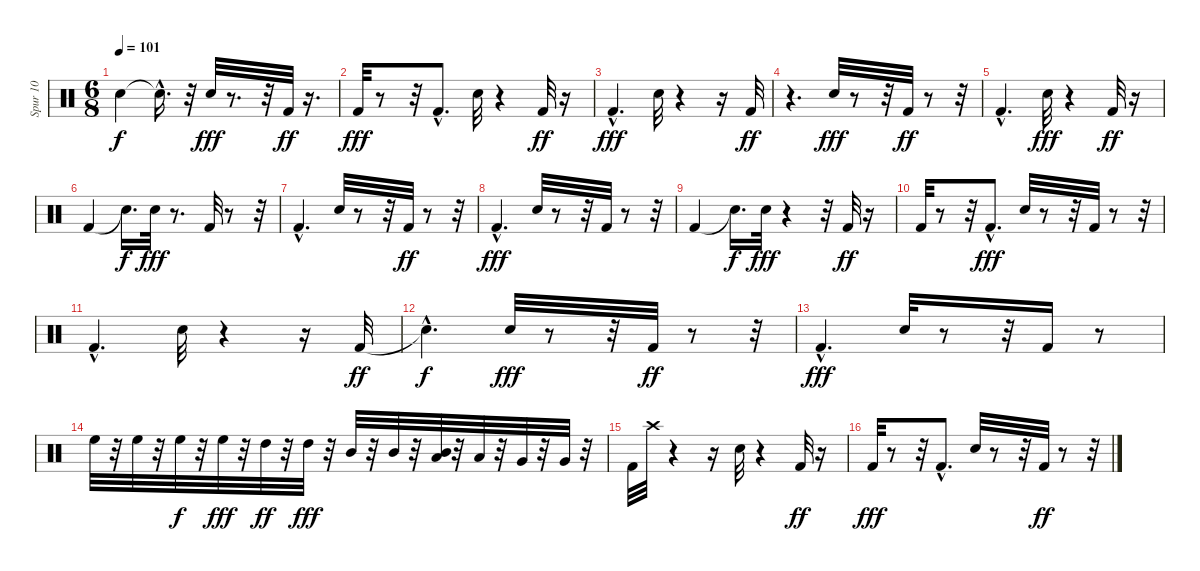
\track ("Spur 10" "Spur 10") {instrument percussion}
\staff {score}
\articulation defaults
\ts (6 8)
\tempo 101
\clef neutral
\ks c "Snare (hit)"{t}.4{dy f} "Snare (hit)"{hac t}.16{d}
r.32 "Electric Snare (hit)".32{dy fff} r.8{d} r.32 "Kick (hit) 2".32{dy ff} r.16{d} |
"Kick (hit) 2".32{dy fff} r.8 r.32 "Kick (hit) 2"{hac}.8{d} "Electric Snare (hit)".32 r.4 "Kick (hit) 2".32{dy ff} r.16 |
"Kick (hit) 2"{hac}.4{d dy fff} "Electric Snare (hit)".32 r.4 r.16 "Kick (hit) 2".32{dy ff} |
r.4{d} "Electric Snare (hit)".32{dy fff} r.8 r.32 "Kick (hit) 2".32{dy ff} r.8 r.32 |
"Kick (hit) 2"{hac}.4{d} "Electric Snare (hit)".32{dy fff} r.4 "Kick (hit) 2".32{dy ff} r.16 |
"Kick (hit) 2".4 "Snare (hit)"{t}.16{d dy f} "Electric Snare (hit)".32{dy fff} r.8{d} "Kick (hit) 2".32 r.8 r.32 |
"Kick (hit) 2"{hac}.4{d} "Electric Snare (hit)".32 r.8 r.32 "Kick (hit) 2".32{dy ff} r.8 r.32 |
"Kick (hit) 2"{hac}.4{d dy fff} "Electric Snare (hit)".32 r.8 r.32 "Kick (hit) 2".32 r.8 r.32 |
"Kick (hit) 2".4 "Snare (hit)"{t}.16{d dy f} "Electric Snare (hit)".32{dy fff} r.4 r.32 "Kick (hit) 2".32{dy ff} r.16 |
"Kick (hit) 2".32 r.8 r.32 "Kick (hit) 2"{hac}.8{d dy fff} "Electric Snare (hit)".32 r.8 r.32 "Kick (hit) 2".32 r.8 r.32 |
"Kick (hit) 2"{hac}.4{d} "Electric Snare (hit)".32 r.4 r.16 "Kick (hit) 2".32{dy ff} |
"Snare (hit)"{hac t}.4{d dy f} "Electric Snare (hit)".32{dy fff} r.8 r.32 "Kick (hit) 2".32{dy ff} r.8 r.32 |
"Kick (hit) 2"{hac}.4{d dy fff} "Electric Snare (hit)".32 r.8 r.32 "Kick (hit) 2".16 r.8 |
"High Floor Tom (hit)".32 r.32 "High Floor Tom (hit)".32 r.32 "High Floor Tom (hit)".32{dy f} r.32 "High Floor Tom (hit)".32{dy fff} r.32 "High Tom (hit)".32{dy ff} r.32 "High Tom (hit)".32{dy fff} r.32 "Mid Tom (hit)".32 r.32 "Mid Tom (hit)".32 r.32 ("Low Tom (hit)" "Mid Tom (hit)").32 r.32 "Low Tom (hit)".32 r.32 "Very Low Tom (hit)".32 r.32 "Very Low Tom (hit)".32 r.32 |
"Kick (hit) 2".32 "Crash high (hit)".32 r.4 r.16 "Electric Snare (hit)".32 r.4 "Kick (hit) 2".32{dy ff} r.16 |
"Kick (hit) 2".32{dy fff} r.8 r.32 "Kick (hit) 2"{hac}.8{d} "Electric Snare (hit)".32 r.8 r.32 "Kick (hit) 2".32{dy ff} r.8 r.32
